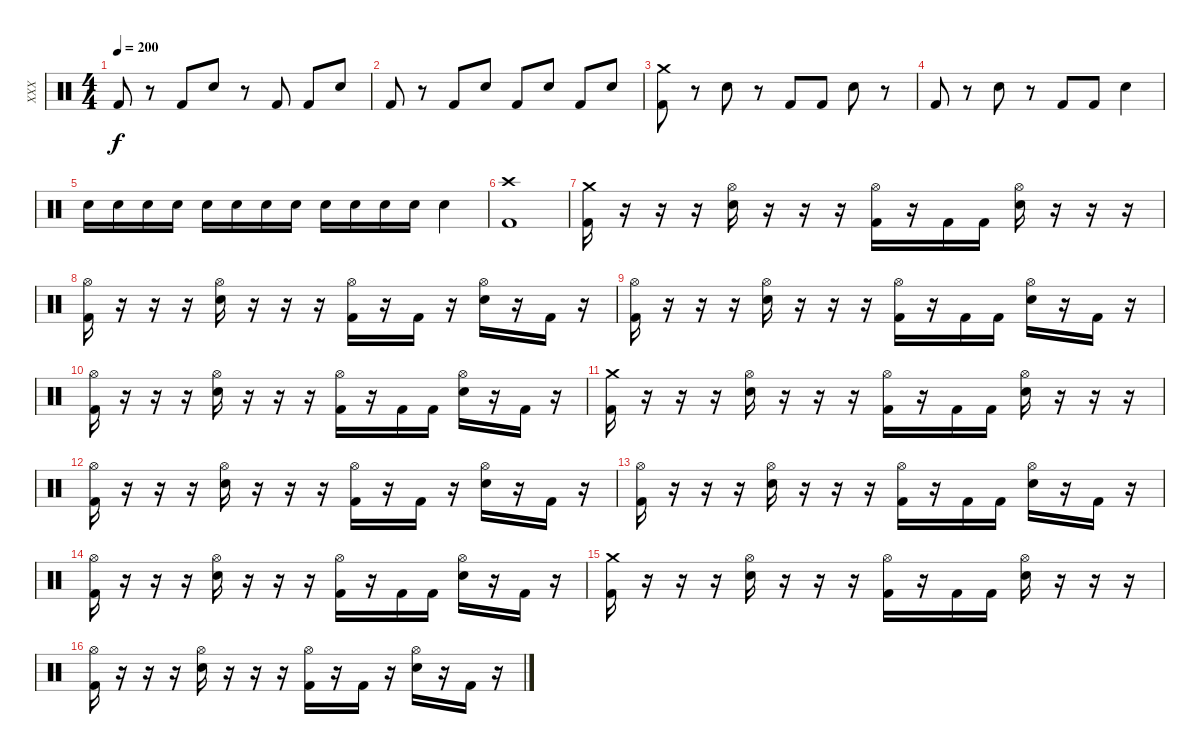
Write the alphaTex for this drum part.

\track ("XXX" "XXX") {instrument percussion}
\staff {score}
\articulation defaults
\ts (4 4)
\tempo 200
\clef neutral
\ks c "Kick (hit) 2".8{dy f}
r.8 "Kick (hit) 2".8 "Electric Snare (hit)".8 r.8 "Kick (hit) 2".8 "Kick (hit) 2".8 "Electric Snare (hit)".8 |
"Kick (hit) 2".8 r.8 "Kick (hit) 2".8 "Electric Snare (hit)".8 "Kick (hit) 2".8 "Electric Snare (hit)".8 "Kick (hit) 2".8 "Electric Snare (hit)".8 |
("Crash medium (hit)" "Kick (hit) 2").8 r.8 "Electric Snare (hit)".8 r.8 "Kick (hit) 2".8 "Kick (hit) 2".8 "Electric Snare (hit)".8 r.8 |
"Kick (hit) 2".8 r.8 "Electric Snare (hit)".8 r.8 "Kick (hit) 2".8 "Kick (hit) 2".8 "Electric Snare (hit)".4 |
"Electric Snare (hit)".16 "Electric Snare (hit)".16 "Electric Snare (hit)".16 "Electric Snare (hit)".16 "Electric Snare (hit)".16 "Electric Snare (hit)".16 "Electric Snare (hit)".16 "Electric Snare (hit)".16 "Electric Snare (hit)".16 "Electric Snare (hit)".16 "Electric Snare (hit)".16 "Electric Snare (hit)".16 "Electric Snare (hit)".4 |
("Crash high (hit)" "Kick (hit) 2").1 |
("Crash medium (hit)" "Kick (hit) 2").16 r.16 r.16 r.16 ("Hi-Hat (open)" "Electric Snare (hit)").16 r.16 r.16 r.16 ("Hi-Hat (open)" "Kick (hit) 2").16 r.16 "Kick (hit) 2".16 "Kick (hit) 2".16 ("Hi-Hat (open)" "Electric Snare (hit)").16 r.16 r.16 r.16 |
("Hi-Hat (open)" "Kick (hit) 2").16 r.16 r.16 r.16 ("Hi-Hat (open)" "Electric Snare (hit)").16 r.16 r.16 r.16 ("Hi-Hat (open)" "Kick (hit) 2").16 r.16 "Kick (hit) 2".16 r.16 ("Hi-Hat (open)" "Electric Snare (hit)").16 r.16 "Kick (hit) 2".16 r.16 |
("Hi-Hat (open)" "Kick (hit) 2").16 r.16 r.16 r.16 ("Hi-Hat (open)" "Electric Snare (hit)").16 r.16 r.16 r.16 ("Hi-Hat (open)" "Kick (hit) 2").16 r.16 "Kick (hit) 2".16 "Kick (hit) 2".16 ("Hi-Hat (open)" "Electric Snare (hit)").16 r.16 "Kick (hit) 2".16 r.16 |
("Hi-Hat (open)" "Kick (hit) 2").16 r.16 r.16 r.16 ("Hi-Hat (open)" "Electric Snare (hit)").16 r.16 r.16 r.16 ("Hi-Hat (open)" "Kick (hit) 2").16 r.16 "Kick (hit) 2".16 "Kick (hit) 2".16 ("Hi-Hat (open)" "Electric Snare (hit)").16 r.16 "Kick (hit) 2".16 r.16 |
("Crash medium (hit)" "Kick (hit) 2").16 r.16 r.16 r.16 ("Hi-Hat (open)" "Electric Snare (hit)").16 r.16 r.16 r.16 ("Hi-Hat (open)" "Kick (hit) 2").16 r.16 "Kick (hit) 2".16 "Kick (hit) 2".16 ("Hi-Hat (open)" "Electric Snare (hit)").16 r.16 r.16 r.16 |
("Hi-Hat (open)" "Kick (hit) 2").16 r.16 r.16 r.16 ("Hi-Hat (open)" "Electric Snare (hit)").16 r.16 r.16 r.16 ("Hi-Hat (open)" "Kick (hit) 2").16 r.16 "Kick (hit) 2".16 r.16 ("Hi-Hat (open)" "Electric Snare (hit)").16 r.16 "Kick (hit) 2".16 r.16 |
("Hi-Hat (open)" "Kick (hit) 2").16 r.16 r.16 r.16 ("Hi-Hat (open)" "Electric Snare (hit)").16 r.16 r.16 r.16 ("Hi-Hat (open)" "Kick (hit) 2").16 r.16 "Kick (hit) 2".16 "Kick (hit) 2".16 ("Hi-Hat (open)" "Electric Snare (hit)").16 r.16 "Kick (hit) 2".16 r.16 |
("Hi-Hat (open)" "Kick (hit) 2").16 r.16 r.16 r.16 ("Hi-Hat (open)" "Electric Snare (hit)").16 r.16 r.16 r.16 ("Hi-Hat (open)" "Kick (hit) 2").16 r.16 "Kick (hit) 2".16 "Kick (hit) 2".16 ("Hi-Hat (open)" "Electric Snare (hit)").16 r.16 "Kick (hit) 2".16 r.16 |
("Crash medium (hit)" "Kick (hit) 2").16 r.16 r.16 r.16 ("Hi-Hat (open)" "Electric Snare (hit)").16 r.16 r.16 r.16 ("Hi-Hat (open)" "Kick (hit) 2").16 r.16 "Kick (hit) 2".16 "Kick (hit) 2".16 ("Hi-Hat (open)" "Electric Snare (hit)").16 r.16 r.16 r.16 |
("Hi-Hat (open)" "Kick (hit) 2").16 r.16 r.16 r.16 ("Hi-Hat (open)" "Electric Snare (hit)").16 r.16 r.16 r.16 ("Hi-Hat (open)" "Kick (hit) 2").16 r.16 "Kick (hit) 2".16 r.16 ("Hi-Hat (open)" "Electric Snare (hit)").16 r.16 "Kick (hit) 2".16 r.16
